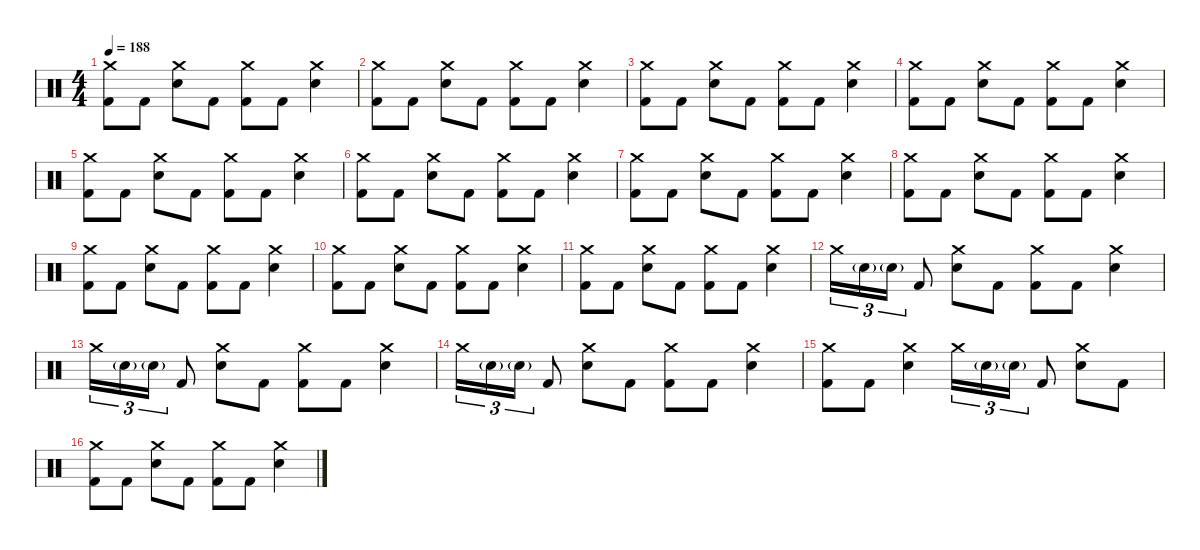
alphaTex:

\defaultSystemsLayout 4
\hideDynamics
\bracketExtendMode nobrackets
\singleTrackTrackNamePolicy hidden
\multiTrackTrackNamePolicy hidden
\firstSystemTrackNameMode fullname
\firstSystemTrackNameOrientation horizontal
\otherSystemsTrackNameOrientation horizontal
\track ("Drums" "drm.") {instrument percussion}
\staff {score}
\articulation defaults
\ts (4 4)
\tempo 188
\clef neutral
\ks c
("Crash medium (hit)" "Kick (hit) 2").8{dy mf beam Down} "Kick (hit) 2".8{dy f beam Down} ("Crash medium (hit)" "Snare (hit) 2").8{dy mf beam Down} "Kick (hit) 2".8{dy f beam Down} ("Crash medium (hit)" "Kick (hit) 2").8{dy mf beam Down} "Kick (hit) 2".8{dy f beam Down} ("Crash medium (hit)" "Snare (hit) 2").4{dy mf beam Down} |
("Crash medium (hit)" "Kick (hit) 2").8{beam Down} "Kick (hit) 2".8{dy f beam Down} ("Crash medium (hit)" "Snare (hit) 2").8{dy mf beam Down} "Kick (hit) 2".8{dy f beam Down} ("Crash medium (hit)" "Kick (hit) 2").8{dy mf beam Down} "Kick (hit) 2".8{dy f beam Down} ("Crash medium (hit)" "Snare (hit) 2").4{dy mf beam Down} |
("Crash medium (hit)" "Kick (hit) 2").8{beam Down} "Kick (hit) 2".8{dy f beam Down} ("Crash medium (hit)" "Snare (hit) 2").8{dy mf beam Down} "Kick (hit) 2".8{dy f beam Down} ("Crash medium (hit)" "Kick (hit) 2").8{dy mf beam Down} "Kick (hit) 2".8{dy f beam Down} ("Crash medium (hit)" "Snare (hit) 2").4{dy mf beam Down} |
("Crash medium (hit)" "Kick (hit) 2").8{beam Down} "Kick (hit) 2".8{dy f beam Down} ("Crash medium (hit)" "Snare (hit) 2").8{dy mf beam Down} "Kick (hit) 2".8{dy f beam Down} ("Crash medium (hit)" "Kick (hit) 2").8{dy mf beam Down} "Kick (hit) 2".8{dy f beam Down} ("Crash medium (hit)" "Snare (hit) 2").4{dy mf beam Down} |
("Crash medium (hit)" "Kick (hit) 2").8{beam Down} "Kick (hit) 2".8{dy f beam Down} ("Crash medium (hit)" "Snare (hit) 2").8{dy mf beam Down} "Kick (hit) 2".8{dy f beam Down} ("Crash medium (hit)" "Kick (hit) 2").8{dy mf beam Down} "Kick (hit) 2".8{dy f beam Down} ("Crash medium (hit)" "Snare (hit) 2").4{dy mf beam Down} |
("Crash medium (hit)" "Kick (hit) 2").8{beam Down} "Kick (hit) 2".8{dy f beam Down} ("Crash medium (hit)" "Snare (hit) 2").8{dy mf beam Down} "Kick (hit) 2".8{dy f beam Down} ("Crash medium (hit)" "Kick (hit) 2").8{dy mf beam Down} "Kick (hit) 2".8{dy f beam Down} ("Crash medium (hit)" "Snare (hit) 2").4{dy mf beam Down} |
("Crash medium (hit)" "Kick (hit) 2").8{beam Down} "Kick (hit) 2".8{dy f beam Down} ("Crash medium (hit)" "Snare (hit) 2").8{dy mf beam Down} "Kick (hit) 2".8{dy f beam Down} ("Crash medium (hit)" "Kick (hit) 2").8{dy mf beam Down} "Kick (hit) 2".8{dy f beam Down} ("Crash medium (hit)" "Snare (hit) 2").4{dy mf beam Down} |
("Crash medium (hit)" "Kick (hit) 2").8{beam Down} "Kick (hit) 2".8{dy f beam Down} ("Crash medium (hit)" "Snare (hit) 2").8{dy mf beam Down} "Kick (hit) 2".8{dy f beam Down} ("Crash medium (hit)" "Kick (hit) 2").8{dy mf beam Down} "Kick (hit) 2".8{dy f beam Down} ("Crash medium (hit)" "Snare (hit) 2").4{dy mf beam Down} |
("Crash medium (hit)" "Kick (hit) 2").8{beam Down} "Kick (hit) 2".8{dy f beam Down} ("Crash medium (hit)" "Snare (hit) 2").8{dy mf beam Down} "Kick (hit) 2".8{dy f beam Down} ("Crash medium (hit)" "Kick (hit) 2").8{dy mf beam Down} "Kick (hit) 2".8{dy f beam Down} ("Crash medium (hit)" "Snare (hit) 2").4{dy mf beam Down} |
("Crash medium (hit)" "Kick (hit) 2").8{beam Down} "Kick (hit) 2".8{dy f beam Down} ("Crash medium (hit)" "Snare (hit) 2").8{dy mf beam Down} "Kick (hit) 2".8{dy f beam Down} ("Crash medium (hit)" "Kick (hit) 2").8{dy mf beam Down} "Kick (hit) 2".8{dy f beam Down} ("Crash medium (hit)" "Snare (hit) 2").4{dy mf beam Down} |
("Crash medium (hit)" "Kick (hit) 2").8{beam Down} "Kick (hit) 2".8{dy f beam Down} ("Crash medium (hit)" "Snare (hit) 2").8{dy mf beam Down} "Kick (hit) 2".8{dy f beam Down} ("Crash medium (hit)" "Kick (hit) 2").8{dy mf beam Down} "Kick (hit) 2".8{dy f beam Down} ("Crash medium (hit)" "Snare (hit) 2").4{dy mf beam Down} |
"Crash medium (hit)".16{tu (3 2) beam Down} "Snare (hit) 2"{g}.16{tu (3 2) dy ff beam Down} "Snare (hit) 2"{g}.16{tu (3 2) beam Down} "Kick (hit) 2".8{dy f beam Up} ("Crash medium (hit)" "Snare (hit) 2").8{dy mf beam Down} "Kick (hit) 2".8{dy f beam Down} ("Crash medium (hit)" "Kick (hit) 2").8{dy mf beam Down} "Kick (hit) 2".8{dy f beam Down} ("Crash medium (hit)" "Snare (hit) 2").4{dy mf beam Down} |
"Crash medium (hit)".16{tu (3 2) beam Down} "Snare (hit) 2"{g}.16{tu (3 2) dy ff beam Down} "Snare (hit) 2"{g}.16{tu (3 2) beam Down} "Kick (hit) 2".8{dy f beam Up} ("Crash medium (hit)" "Snare (hit) 2").8{dy mf beam Down} "Kick (hit) 2".8{dy f beam Down} ("Crash medium (hit)" "Kick (hit) 2").8{dy mf beam Down} "Kick (hit) 2".8{dy f beam Down} ("Crash medium (hit)" "Snare (hit) 2").4{dy mf beam Down} |
"Crash medium (hit)".16{tu (3 2) beam Down} "Snare (hit) 2"{g}.16{tu (3 2) dy ff beam Down} "Snare (hit) 2"{g}.16{tu (3 2) beam Down} "Kick (hit) 2".8{dy f beam Up} ("Crash medium (hit)" "Snare (hit) 2").8{dy mf beam Down} "Kick (hit) 2".8{dy f beam Down} ("Crash medium (hit)" "Kick (hit) 2").8{dy mf beam Down} "Kick (hit) 2".8{dy f beam Down} ("Crash medium (hit)" "Snare (hit) 2").4{dy mf beam Down} |
("Crash medium (hit)" "Kick (hit) 2").8{beam Down} "Kick (hit) 2".8{dy f beam Down} ("Crash medium (hit)" "Snare (hit) 2").4{dy mf beam Down} "Crash medium (hit)".16{tu (3 2) beam Down} "Snare (hit) 2"{g}.16{tu (3 2) dy ff beam Down} "Snare (hit) 2"{g}.16{tu (3 2) beam Down} "Kick (hit) 2".8{dy f beam Up} ("Crash medium (hit)" "Snare (hit) 2").8{dy mf beam Down} "Kick (hit) 2".8{dy f beam Down} |
("Crash medium (hit)" "Kick (hit) 2").8{dy mf beam Down} "Kick (hit) 2".8{dy f beam Down} ("Crash medium (hit)" "Snare (hit) 2").8{dy mf beam Down} "Kick (hit) 2".8{dy f beam Down} ("Crash medium (hit)" "Kick (hit) 2").8{dy mf beam Down} "Kick (hit) 2".8{dy f beam Down} ("Crash medium (hit)" "Snare (hit) 2").4{dy mf beam Down}
